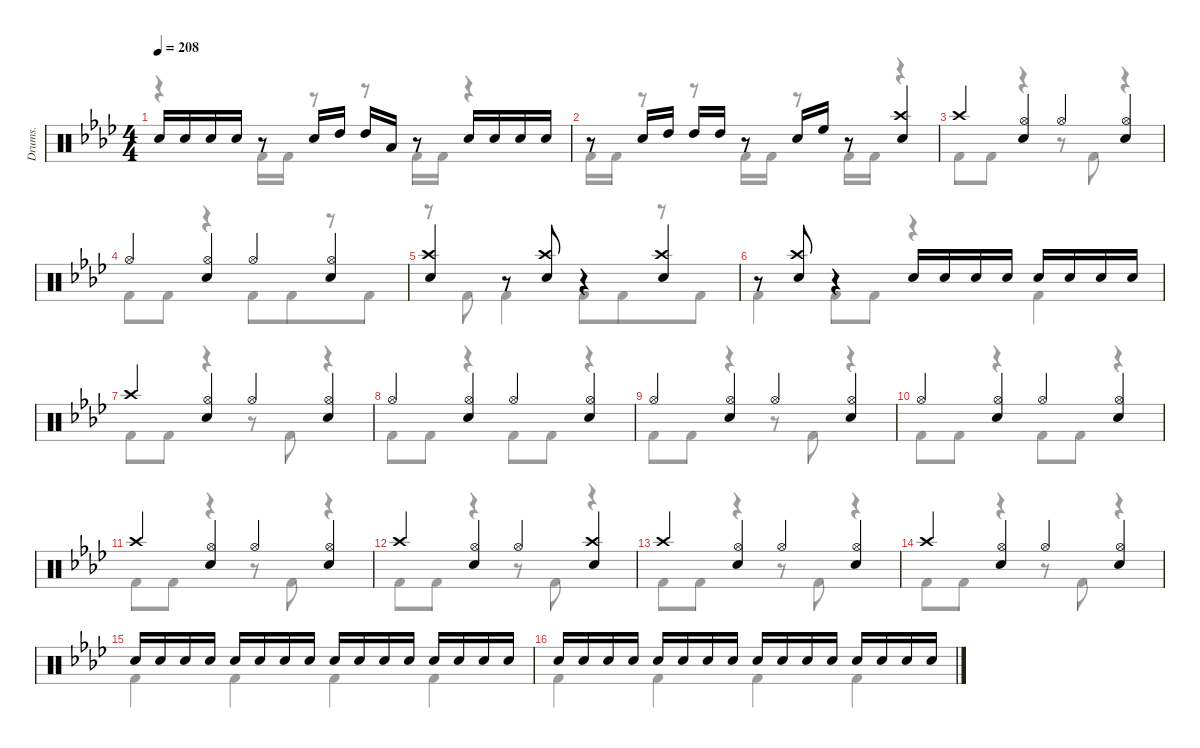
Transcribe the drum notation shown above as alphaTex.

\defaultSystemsLayout 4
\hideDynamics
\otherSystemsTrackNameOrientation horizontal
\track ("Drumkit" "Drums.") {defaultSystemsLayout 4 instrument percussion}
\staff {score}
\articulation defaults
\voice
\ts (4 4)
\tempo 208
\clef neutral
\ks fminor "Snare (hit) 2"{acc forcenatural}.16{dy mf} "Snare (hit) 2"{acc forcenatural}.16 "Snare (hit) 2"{acc forcenatural}.16 "Snare (hit) 2"{acc forcenatural}.16
r.8 "Snare (hit) 2"{acc forcenatural}.16 "High Tom (hit)"{acc forcenatural}.16 "High Tom (hit)"{acc forcenatural}.16 "Low Tom (hit)"{acc forcenatural}.16 r.8 "Snare (hit) 2"{acc forcenatural}.16 "Snare (hit) 2"{acc forcenatural}.16 "Snare (hit) 2"{acc forcenatural}.16 "Snare (hit) 2"{acc forcenatural}.16 |
r.8 "Snare (hit) 2"{acc forcenatural}.16 "High Tom (hit)"{acc forcenatural}.16 "High Tom (hit)"{acc forcenatural}.16 "High Tom (hit)"{acc forcenatural}.16 r.8 "Snare (hit) 2"{acc forcenatural}.16 "High Floor Tom (hit)"{acc forcenatural}.16 r.8 ("Snare (hit) 2"{acc forcenatural} "Crash high (hit)"{acc forcenatural}).4 |
"Crash high (hit)"{acc forcenatural}.4 ("Hi-Hat (open)"{acc forcenatural} "Snare (hit) 2"{acc forcenatural}).4 "Hi-Hat (open)"{acc forcenatural}.4{beam merge} ("Hi-Hat (open)"{acc forcenatural} "Snare (hit) 2"{acc forcenatural}).4 |
"Hi-Hat (open)"{acc forcenatural}.4 ("Hi-Hat (open)"{acc forcenatural} "Snare (hit) 2"{acc forcenatural}).4 "Hi-Hat (open)"{acc forcenatural}.4 ("Hi-Hat (open)"{acc forcenatural} "Snare (hit) 2"{acc forcenatural}).4 |
("Crash high (hit)"{acc forcenatural} "Snare (hit) 2"{acc forcenatural}).4 r.8 ("Crash high (hit)"{acc forcenatural} "Snare (hit) 2"{acc forcenatural}).8 r.4 ("Crash high (hit)"{acc forcenatural} "Snare (hit) 2"{acc forcenatural}).4 |
r.8 ("Crash high (hit)"{acc forcenatural} "Snare (hit) 2"{acc forcenatural}).8 r.4 "Snare (hit) 2"{acc forcenatural}.16 "Snare (hit) 2"{acc forcenatural}.16 "Snare (hit) 2"{acc forcenatural}.16 "Snare (hit) 2"{acc forcenatural}.16 "Snare (hit) 2"{acc forcenatural}.16 "Snare (hit) 2"{acc forcenatural}.16 "Snare (hit) 2"{acc forcenatural}.16 "Snare (hit) 2"{acc forcenatural}.16 |
"Crash high (hit)"{acc forcenatural}.4 ("Hi-Hat (open)"{acc forcenatural} "Snare (hit) 2"{acc forcenatural}).4 "Hi-Hat (open)"{acc forcenatural}.4 ("Hi-Hat (open)"{acc forcenatural} "Snare (hit) 2"{acc forcenatural}).4 |
"Hi-Hat (open)"{acc forcenatural}.4 ("Hi-Hat (open)"{acc forcenatural} "Snare (hit) 2"{acc forcenatural}).4 "Hi-Hat (open)"{acc forcenatural}.4 ("Hi-Hat (open)"{acc forcenatural} "Snare (hit) 2"{acc forcenatural}).4 |
"Hi-Hat (open)"{acc forcenatural}.4 ("Hi-Hat (open)"{acc forcenatural} "Snare (hit) 2"{acc forcenatural}).4 "Hi-Hat (open)"{acc forcenatural}.4 ("Hi-Hat (open)"{acc forcenatural} "Snare (hit) 2"{acc forcenatural}).4 |
"Hi-Hat (open)"{acc forcenatural}.4 ("Hi-Hat (open)"{acc forcenatural} "Snare (hit) 2"{acc forcenatural}).4 "Hi-Hat (open)"{acc forcenatural}.4 ("Hi-Hat (open)"{acc forcenatural} "Snare (hit) 2"{acc forcenatural}).4 |
"Crash high (hit)"{acc forcenatural}.4 ("Hi-Hat (open)"{acc forcenatural} "Snare (hit) 2"{acc forcenatural}).4 "Hi-Hat (open)"{acc forcenatural}.4 ("Hi-Hat (open)"{acc forcenatural} "Snare (hit) 2"{acc forcenatural}).4 |
"Crash high (hit)"{acc forcenatural}.4 ("Hi-Hat (open)"{acc forcenatural} "Snare (hit) 2"{acc forcenatural}).4 "Hi-Hat (open)"{acc forcenatural}.4 ("Snare (hit) 2"{acc forcenatural} "Crash high (hit)"{acc forcenatural}).4 |
"Crash high (hit)"{acc forcenatural}.4 ("Hi-Hat (open)"{acc forcenatural} "Snare (hit) 2"{acc forcenatural}).4 "Hi-Hat (open)"{acc forcenatural}.4 ("Hi-Hat (open)"{acc forcenatural} "Snare (hit) 2"{acc forcenatural}).4 |
"Crash high (hit)"{acc forcenatural}.4 ("Hi-Hat (open)"{acc forcenatural} "Snare (hit) 2"{acc forcenatural}).4 "Hi-Hat (open)"{acc forcenatural}.4 ("Snare (hit) 2"{acc forcenatural} "Hi-Hat (open)"{acc forcenatural}).4 |
"Snare (hit) 2"{acc forcenatural}.16 "Snare (hit) 2"{acc forcenatural}.16 "Snare (hit) 2"{acc forcenatural}.16 "Snare (hit) 2"{acc forcenatural}.16 "Snare (hit) 2"{acc forcenatural}.16 "Snare (hit) 2"{acc forcenatural}.16 "Snare (hit) 2"{acc forcenatural}.16 "Snare (hit) 2"{acc forcenatural}.16 "Snare (hit) 2"{acc forcenatural}.16 "Snare (hit) 2"{acc forcenatural}.16 "Snare (hit) 2"{acc forcenatural}.16 "Snare (hit) 2"{acc forcenatural}.16 "Snare (hit) 2"{acc forcenatural}.16 "Snare (hit) 2"{acc forcenatural}.16 "Snare (hit) 2"{acc forcenatural}.16 "Snare (hit) 2"{acc forcenatural}.16 |
"Snare (hit) 2"{acc forcenatural}.16 "Snare (hit) 2"{acc forcenatural}.16 "Snare (hit) 2"{acc forcenatural}.16 "Snare (hit) 2"{acc forcenatural}.16 "Snare (hit) 2"{acc forcenatural}.16 "Snare (hit) 2"{acc forcenatural}.16 "Snare (hit) 2"{acc forcenatural}.16 "Snare (hit) 2"{acc forcenatural}.16 "Snare (hit) 2"{acc forcenatural}.16 "Snare (hit) 2"{acc forcenatural}.16 "Snare (hit) 2"{acc forcenatural}.16 "Snare (hit) 2"{acc forcenatural}.16 "Snare (hit) 2"{acc forcenatural}.16 "Snare (hit) 2"{acc forcenatural}.16 "Snare (hit) 2"{acc forcenatural}.16 "Snare (hit) 2"{acc forcenatural}.16
\voice
\clef neutral
\ottava regular
\simile none
\ks fminor
r.4{dy mf} "Kick (hit) 2"{acc forcenatural}.16 "Kick (hit) 2"{acc forcenatural}.16 r.8 r.8 "Kick (hit) 2"{acc forcenatural}.16 "Kick (hit) 2"{acc forcenatural}.16 r.4 |
"Kick (hit) 2"{acc forcenatural}.16 "Kick (hit) 2"{acc forcenatural}.16 r.8 r.8 "Kick (hit) 2"{acc forcenatural}.16 "Kick (hit) 2"{acc forcenatural}.16 r.8 "Kick (hit) 2"{acc forcenatural}.16 "Kick (hit) 2"{acc forcenatural}.16 r.4 |
"Kick (hit) 2"{acc forcenatural}.8 "Kick (hit) 2"{acc forcenatural}.8 r.4 r.8 "Kick (hit) 2"{acc forcenatural}.8{beam merge} r.4 |
"Kick (hit) 2"{acc forcenatural}.8 "Kick (hit) 2"{acc forcenatural}.8 r.4 "Kick (hit) 2"{acc forcenatural}.8 "Kick (hit) 2"{acc forcenatural}.8{beam merge} r.8{beam merge} "Kick (hit) 2"{acc forcenatural}.8 |
r.8 "Kick (hit) 2"{acc forcenatural}.8 "Kick (hit) 2"{acc forcenatural}.4 "Kick (hit) 2"{acc forcenatural}.8 "Kick (hit) 2"{acc forcenatural}.8{beam merge} r.8{beam merge} "Kick (hit) 2"{acc forcenatural}.8 |
"Kick (hit) 2"{acc forcenatural}.4 "Kick (hit) 2"{acc forcenatural}.8 "Kick (hit) 2"{acc forcenatural}.8 r.4 "Kick (hit) 2"{acc forcenatural}.4 |
"Kick (hit) 2"{acc forcenatural}.8 "Kick (hit) 2"{acc forcenatural}.8 r.4 r.8 "Kick (hit) 2"{acc forcenatural}.8{beam merge} r.4 |
"Kick (hit) 2"{acc forcenatural}.8 "Kick (hit) 2"{acc forcenatural}.8 r.4 "Kick (hit) 2"{acc forcenatural}.8 "Kick (hit) 2"{acc forcenatural}.8 r.4 |
"Kick (hit) 2"{acc forcenatural}.8 "Kick (hit) 2"{acc forcenatural}.8 r.4 r.8 "Kick (hit) 2"{acc forcenatural}.8 r.4 |
"Kick (hit) 2"{acc forcenatural}.8 "Kick (hit) 2"{acc forcenatural}.8 r.4 "Kick (hit) 2"{acc forcenatural}.8 "Kick (hit) 2"{acc forcenatural}.8 r.4 |
"Kick (hit) 2"{acc forcenatural}.8 "Kick (hit) 2"{acc forcenatural}.8 r.4 r.8 "Kick (hit) 2"{acc forcenatural}.8{beam merge} r.4 |
"Kick (hit) 2"{acc forcenatural}.8 "Kick (hit) 2"{acc forcenatural}.8 r.4 r.8 "Kick (hit) 2"{acc forcenatural}.8{beam merge} r.4 |
"Kick (hit) 2"{acc forcenatural}.8 "Kick (hit) 2"{acc forcenatural}.8 r.4 r.8 "Kick (hit) 2"{acc forcenatural}.8{beam merge} r.4 |
"Kick (hit) 2"{acc forcenatural}.8 "Kick (hit) 2"{acc forcenatural}.8 r.4 r.8 "Kick (hit) 2"{acc forcenatural}.8{beam merge} r.4 |
"Kick (hit) 2"{acc forcenatural}.4 "Kick (hit) 2"{acc forcenatural}.4 "Kick (hit) 2"{acc forcenatural}.4 "Kick (hit) 2"{acc forcenatural}.4 |
"Kick (hit) 2"{acc forcenatural}.4 "Kick (hit) 2"{acc forcenatural}.4 "Kick (hit) 2"{acc forcenatural}.4 "Kick (hit) 2"{acc forcenatural}.4
